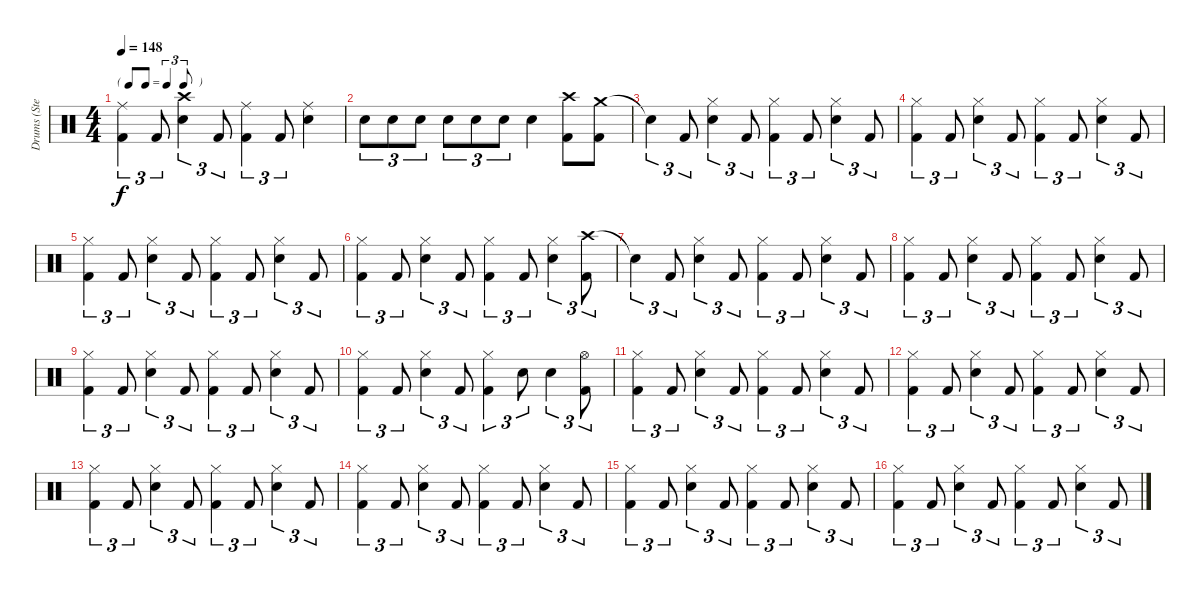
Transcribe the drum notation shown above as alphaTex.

\track ("Drums (Steven)" "Drums (Ste") {instrument percussion}
\staff {score}
\articulation defaults
\ts (4 4)
\tf triplet8th
\tempo 148
\clef neutral
\ks c
("Ride (middle)" "Kick (hit) 2").4{tu (3 2) dy f} "Kick (hit) 2".8{tu (3 2)} ("Crash high (hit)" "Snare (hit) 2").4{tu (3 2)} "Kick (hit) 2".8{tu (3 2)} ("Ride (middle)" "Kick (hit) 2").4{tu (3 2)} "Kick (hit) 2".8{tu (3 2)} ("Ride (middle)" "Snare (hit) 2").4 |
"Snare (hit) 2".8{tu (3 2)} "Snare (hit) 2".8{tu (3 2)} "Snare (hit) 2".8{tu (3 2)} "Snare (hit) 2".8{tu (3 2)} "Snare (hit) 2".8{tu (3 2)} "Snare (hit) 2".8{tu (3 2)} "Snare (hit) 2".4 ("Crash high (hit)" "Kick (hit) 2").8 ("Crash medium (hit)" "Kick (hit) 2").8 |
"Snare (hit)"{t}.4{tu (3 2)} "Kick (hit) 2".8{tu (3 2)} ("Hi-Hat (closed)" "Snare (hit) 2").4{tu (3 2)} "Kick (hit) 2".8{tu (3 2)} ("Hi-Hat (closed)" "Kick (hit) 2").4{tu (3 2)} "Kick (hit) 2".8{tu (3 2)} ("Hi-Hat (closed)" "Snare (hit) 2").4{tu (3 2)} "Kick (hit) 2".8{tu (3 2)} |
("Hi-Hat (closed)" "Kick (hit) 2").4{tu (3 2)} "Kick (hit) 2".8{tu (3 2)} ("Hi-Hat (closed)" "Snare (hit) 2").4{tu (3 2)} "Kick (hit) 2".8{tu (3 2)} ("Hi-Hat (closed)" "Kick (hit) 2").4{tu (3 2)} "Kick (hit) 2".8{tu (3 2)} ("Hi-Hat (closed)" "Snare (hit) 2").4{tu (3 2)} "Kick (hit) 2".8{tu (3 2)} |
("Hi-Hat (closed)" "Kick (hit) 2").4{tu (3 2)} "Kick (hit) 2".8{tu (3 2)} ("Hi-Hat (closed)" "Snare (hit) 2").4{tu (3 2)} "Kick (hit) 2".8{tu (3 2)} ("Hi-Hat (closed)" "Kick (hit) 2").4{tu (3 2)} "Kick (hit) 2".8{tu (3 2)} ("Hi-Hat (closed)" "Snare (hit) 2").4{tu (3 2)} "Kick (hit) 2".8{tu (3 2)} |
("Hi-Hat (closed)" "Kick (hit) 2").4{tu (3 2)} "Kick (hit) 2".8{tu (3 2)} ("Hi-Hat (closed)" "Snare (hit) 2").4{tu (3 2)} "Kick (hit) 2".8{tu (3 2)} ("Hi-Hat (closed)" "Kick (hit) 2").4{tu (3 2)} "Kick (hit) 2".8{tu (3 2)} ("Hi-Hat (closed)" "Snare (hit) 2").4{tu (3 2)} ("Crash high (hit)" "Kick (hit) 2").8{tu (3 2)} |
"Snare (hit)"{t}.4{tu (3 2)} "Kick (hit) 2".8{tu (3 2)} ("Hi-Hat (closed)" "Snare (hit) 2").4{tu (3 2)} "Kick (hit) 2".8{tu (3 2)} ("Hi-Hat (closed)" "Kick (hit) 2").4{tu (3 2)} "Kick (hit) 2".8{tu (3 2)} ("Hi-Hat (closed)" "Snare (hit) 2").4{tu (3 2)} "Kick (hit) 2".8{tu (3 2)} |
("Hi-Hat (closed)" "Kick (hit) 2").4{tu (3 2)} "Kick (hit) 2".8{tu (3 2)} ("Hi-Hat (closed)" "Snare (hit) 2").4{tu (3 2)} "Kick (hit) 2".8{tu (3 2)} ("Hi-Hat (closed)" "Kick (hit) 2").4{tu (3 2)} "Kick (hit) 2".8{tu (3 2)} ("Hi-Hat (closed)" "Snare (hit) 2").4{tu (3 2)} "Kick (hit) 2".8{tu (3 2)} |
("Hi-Hat (closed)" "Kick (hit) 2").4{tu (3 2)} "Kick (hit) 2".8{tu (3 2)} ("Hi-Hat (closed)" "Snare (hit) 2").4{tu (3 2)} "Kick (hit) 2".8{tu (3 2)} ("Hi-Hat (closed)" "Kick (hit) 2").4{tu (3 2)} "Kick (hit) 2".8{tu (3 2)} ("Hi-Hat (closed)" "Snare (hit) 2").4{tu (3 2)} "Kick (hit) 2".8{tu (3 2)} |
("Hi-Hat (closed)" "Kick (hit) 2").4{tu (3 2)} "Kick (hit) 2".8{tu (3 2)} ("Hi-Hat (closed)" "Snare (hit) 2").4{tu (3 2)} "Kick (hit) 2".8{tu (3 2)} ("Hi-Hat (closed)" "Kick (hit) 2").4{tu (3 2)} "Snare (hit) 2".8{tu (3 2)} "Snare (hit) 2".4{tu (3 2)} ("Hi-Hat (open)" "Kick (hit) 2").8{tu (3 2)} |
("Hi-Hat (closed)" "Kick (hit) 2").4{tu (3 2)} "Kick (hit) 2".8{tu (3 2)} ("Hi-Hat (closed)" "Snare (hit) 2").4{tu (3 2)} "Kick (hit) 2".8{tu (3 2)} ("Hi-Hat (closed)" "Kick (hit) 2").4{tu (3 2)} "Kick (hit) 2".8{tu (3 2)} ("Hi-Hat (closed)" "Snare (hit) 2").4{tu (3 2)} "Kick (hit) 2".8{tu (3 2)} |
("Hi-Hat (closed)" "Kick (hit) 2").4{tu (3 2)} "Kick (hit) 2".8{tu (3 2)} ("Hi-Hat (closed)" "Snare (hit) 2").4{tu (3 2)} "Kick (hit) 2".8{tu (3 2)} ("Hi-Hat (closed)" "Kick (hit) 2").4{tu (3 2)} "Kick (hit) 2".8{tu (3 2)} ("Hi-Hat (closed)" "Snare (hit) 2").4{tu (3 2)} "Kick (hit) 2".8{tu (3 2)} |
("Hi-Hat (closed)" "Kick (hit) 2").4{tu (3 2)} "Kick (hit) 2".8{tu (3 2)} ("Hi-Hat (closed)" "Snare (hit) 2").4{tu (3 2)} "Kick (hit) 2".8{tu (3 2)} ("Hi-Hat (closed)" "Kick (hit) 2").4{tu (3 2)} "Kick (hit) 2".8{tu (3 2)} ("Hi-Hat (closed)" "Snare (hit) 2").4{tu (3 2)} "Kick (hit) 2".8{tu (3 2)} |
("Hi-Hat (closed)" "Kick (hit) 2").4{tu (3 2)} "Kick (hit) 2".8{tu (3 2)} ("Hi-Hat (closed)" "Snare (hit) 2").4{tu (3 2)} "Kick (hit) 2".8{tu (3 2)} ("Hi-Hat (closed)" "Kick (hit) 2").4{tu (3 2)} "Kick (hit) 2".8{tu (3 2)} ("Hi-Hat (closed)" "Snare (hit) 2").4{tu (3 2)} "Kick (hit) 2".8{tu (3 2)} |
("Hi-Hat (closed)" "Kick (hit) 2").4{tu (3 2)} "Kick (hit) 2".8{tu (3 2)} ("Hi-Hat (closed)" "Snare (hit) 2").4{tu (3 2)} "Kick (hit) 2".8{tu (3 2)} ("Hi-Hat (closed)" "Kick (hit) 2").4{tu (3 2)} "Kick (hit) 2".8{tu (3 2)} ("Hi-Hat (closed)" "Snare (hit) 2").4{tu (3 2)} "Kick (hit) 2".8{tu (3 2)} |
("Hi-Hat (closed)" "Kick (hit) 2").4{tu (3 2)} "Kick (hit) 2".8{tu (3 2)} ("Hi-Hat (closed)" "Snare (hit) 2").4{tu (3 2)} "Kick (hit) 2".8{tu (3 2)} ("Hi-Hat (closed)" "Kick (hit) 2").4{tu (3 2)} "Kick (hit) 2".8{tu (3 2)} ("Hi-Hat (closed)" "Snare (hit) 2").4{tu (3 2)} "Kick (hit) 2".8{tu (3 2)}
